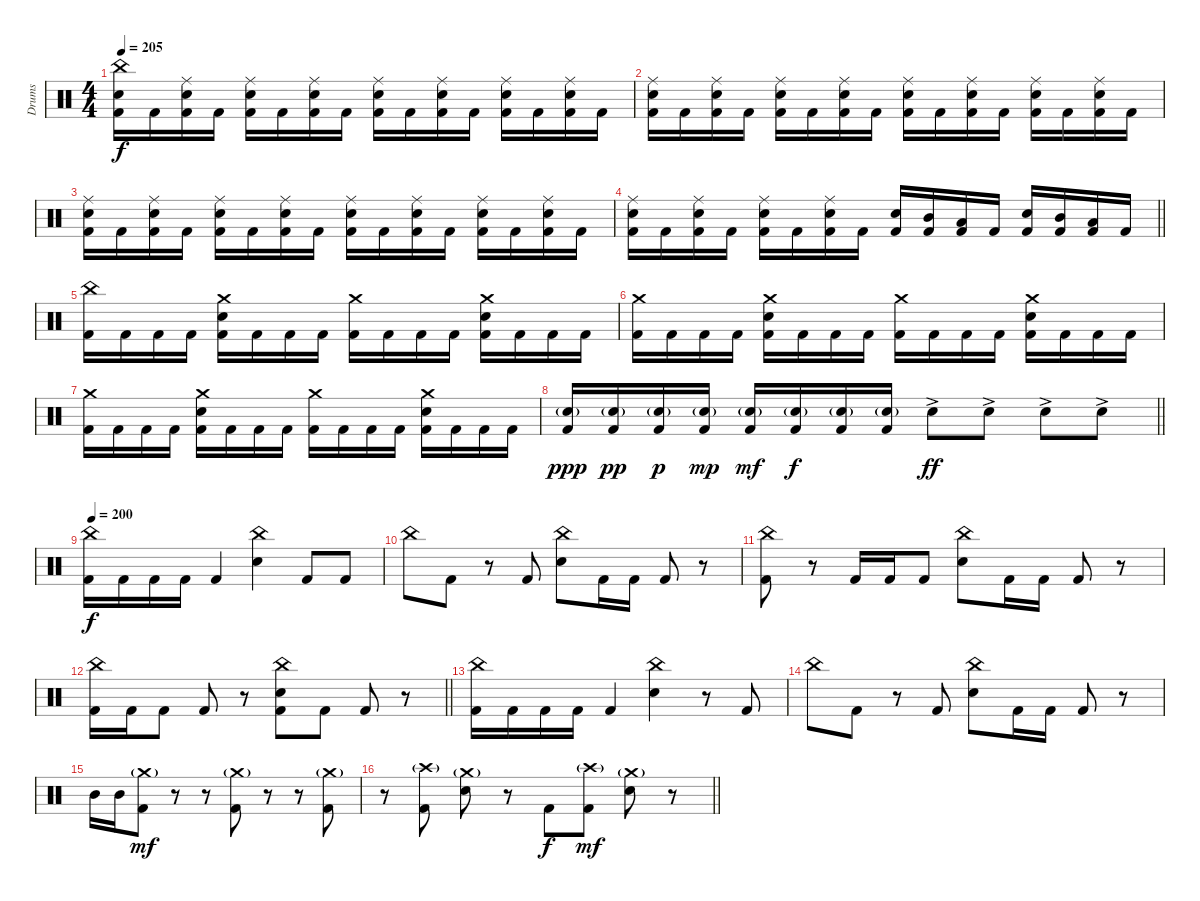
\track ("Drums" "Drums") {instrument percussion}
\staff {score}
\articulation defaults
\ts (4 4)
\tempo 205
\clef neutral
\ks c
("China (hit)" "Electric Snare (hit)" "Kick (hit) 2").16{dy f} "Kick (hit) 2".16 ("Ride (middle)" "Electric Snare (hit)" "Kick (hit) 2").16 "Kick (hit) 2".16 ("Ride (middle)" "Electric Snare (hit)" "Kick (hit) 2").16 "Kick (hit) 2".16 ("Ride (middle)" "Electric Snare (hit)" "Kick (hit) 2").16 "Kick (hit) 2".16 ("Ride (middle)" "Electric Snare (hit)" "Kick (hit) 2").16 "Kick (hit) 2".16 ("Ride (middle)" "Electric Snare (hit)" "Kick (hit) 2").16 "Kick (hit) 2".16 ("Ride (middle)" "Electric Snare (hit)" "Kick (hit) 2").16 "Kick (hit) 2".16 ("Ride (middle)" "Electric Snare (hit)" "Kick (hit) 2").16 "Kick (hit) 2".16 |
("Ride (middle)" "Electric Snare (hit)" "Kick (hit) 2").16 "Kick (hit) 2".16 ("Ride (middle)" "Electric Snare (hit)" "Kick (hit) 2").16 "Kick (hit) 2".16 ("Ride (middle)" "Electric Snare (hit)" "Kick (hit) 2").16 "Kick (hit) 2".16 ("Ride (middle)" "Electric Snare (hit)" "Kick (hit) 2").16 "Kick (hit) 2".16 ("Ride (middle)" "Electric Snare (hit)" "Kick (hit) 2").16 "Kick (hit) 2".16 ("Ride (middle)" "Electric Snare (hit)" "Kick (hit) 2").16 "Kick (hit) 2".16 ("Ride (middle)" "Electric Snare (hit)" "Kick (hit) 2").16 "Kick (hit) 2".16 ("Ride (middle)" "Electric Snare (hit)" "Kick (hit) 2").16 "Kick (hit) 2".16 |
("Ride (middle)" "Electric Snare (hit)" "Kick (hit) 2").16 "Kick (hit) 2".16 ("Ride (middle)" "Electric Snare (hit)" "Kick (hit) 2").16 "Kick (hit) 2".16 ("Ride (middle)" "Electric Snare (hit)" "Kick (hit) 2").16 "Kick (hit) 2".16 ("Ride (middle)" "Electric Snare (hit)" "Kick (hit) 2").16 "Kick (hit) 2".16 ("Ride (middle)" "Electric Snare (hit)" "Kick (hit) 2").16 "Kick (hit) 2".16 ("Ride (middle)" "Electric Snare (hit)" "Kick (hit) 2").16 "Kick (hit) 2".16 ("Ride (middle)" "Electric Snare (hit)" "Kick (hit) 2").16 "Kick (hit) 2".16 ("Ride (middle)" "Electric Snare (hit)" "Kick (hit) 2").16 "Kick (hit) 2".16 |
\barLineRight lightlight
("Ride (middle)" "Electric Snare (hit)" "Kick (hit) 2").16 "Kick (hit) 2".16 ("Ride (middle)" "Electric Snare (hit)" "Kick (hit) 2").16 "Kick (hit) 2".16 ("Ride (middle)" "Electric Snare (hit)" "Kick (hit) 2").16 "Kick (hit) 2".16 ("Ride (middle)" "Electric Snare (hit)" "Kick (hit) 2").16 "Kick (hit) 2".16 ("Electric Snare (hit)" "Kick (hit) 2").16 ("Mid Tom (hit)" "Kick (hit) 2").16 ("Low Tom (hit)" "Kick (hit) 2").16 "Kick (hit) 2".16 ("Electric Snare (hit)" "Kick (hit) 2").16 ("Mid Tom (hit)" "Kick (hit) 2").16 ("Low Tom (hit)" "Kick (hit) 2").16 "Kick (hit) 2".16 |
("China (hit)" "Kick (hit) 2").16 "Kick (hit) 2".16 "Kick (hit) 2".16 "Kick (hit) 2".16 ("Crash medium (hit)" "Electric Snare (hit)" "Kick (hit) 2").16 "Kick (hit) 2".16 "Kick (hit) 2".16 "Kick (hit) 2".16 ("Crash medium (hit)" "Kick (hit) 2").16 "Kick (hit) 2".16 "Kick (hit) 2".16 "Kick (hit) 2".16 ("Crash medium (hit)" "Electric Snare (hit)" "Kick (hit) 2").16 "Kick (hit) 2".16 "Kick (hit) 2".16 "Kick (hit) 2".16 |
("Crash medium (hit)" "Kick (hit) 2").16 "Kick (hit) 2".16 "Kick (hit) 2".16 "Kick (hit) 2".16 ("Crash medium (hit)" "Electric Snare (hit)" "Kick (hit) 2").16 "Kick (hit) 2".16 "Kick (hit) 2".16 "Kick (hit) 2".16 ("Crash medium (hit)" "Kick (hit) 2").16 "Kick (hit) 2".16 "Kick (hit) 2".16 "Kick (hit) 2".16 ("Crash medium (hit)" "Electric Snare (hit)" "Kick (hit) 2").16 "Kick (hit) 2".16 "Kick (hit) 2".16 "Kick (hit) 2".16 |
("Crash medium (hit)" "Kick (hit) 2").16 "Kick (hit) 2".16 "Kick (hit) 2".16 "Kick (hit) 2".16 ("Crash medium (hit)" "Electric Snare (hit)" "Kick (hit) 2").16 "Kick (hit) 2".16 "Kick (hit) 2".16 "Kick (hit) 2".16 ("Crash medium (hit)" "Kick (hit) 2").16 "Kick (hit) 2".16 "Kick (hit) 2".16 "Kick (hit) 2".16 ("Crash medium (hit)" "Electric Snare (hit)" "Kick (hit) 2").16 "Kick (hit) 2".16 "Kick (hit) 2".16 "Kick (hit) 2".16 |
\barLineRight lightlight
("Electric Snare (hit)"{g} "Kick (hit) 2").16{dy ppp} ("Electric Snare (hit)"{g} "Kick (hit) 2").16{dy pp} ("Electric Snare (hit)"{g} "Kick (hit) 2").16{dy p} ("Electric Snare (hit)"{g} "Kick (hit) 2").16{dy mp} ("Electric Snare (hit)"{g} "Kick (hit) 2").16{dy mf} ("Electric Snare (hit)"{g} "Kick (hit) 2").16{dy f} ("Electric Snare (hit)"{g} "Kick (hit) 2").16 ("Electric Snare (hit)"{g} "Kick (hit) 2").16 "Electric Snare (hit)"{ac}.8{dy ff} "Electric Snare (hit)"{ac}.8 "Electric Snare (hit)"{ac}.8 "Electric Snare (hit)"{ac}.8 |
\tempo 200
("China (hit)" "Kick (hit) 2").16{dy f} "Kick (hit) 2".16 "Kick (hit) 2".16 "Kick (hit) 2".16 "Kick (hit) 2".4 ("China (hit)" "Electric Snare (hit)").4 "Kick (hit) 2".8 "Kick (hit) 2".8 |
"China (hit)".8 "Kick (hit) 2".8 r.8 "Kick (hit) 2".8 ("China (hit)" "Electric Snare (hit)").8 "Kick (hit) 2".16 "Kick (hit) 2".16 "Kick (hit) 2".8 r.8 |
("China (hit)" "Kick (hit) 2").8 r.8 "Kick (hit) 2".16 "Kick (hit) 2".16 "Kick (hit) 2".8 ("China (hit)" "Electric Snare (hit)").8 "Kick (hit) 2".16 "Kick (hit) 2".16 "Kick (hit) 2".8 r.8 |
\barLineRight lightlight
("China (hit)" "Kick (hit) 2").16 "Kick (hit) 2".16 "Kick (hit) 2".8 "Kick (hit) 2".8 r.8 ("China (hit)" "Electric Snare (hit)" "Kick (hit) 2").8 "Kick (hit) 2".8 "Kick (hit) 2".8 r.8 |
("China (hit)" "Kick (hit) 2").16 "Kick (hit) 2".16 "Kick (hit) 2".16 "Kick (hit) 2".16 "Kick (hit) 2".4 ("China (hit)" "Electric Snare (hit)").4 r.8 "Kick (hit) 2".8 |
"China (hit)".8 "Kick (hit) 2".8 r.8 "Kick (hit) 2".8 ("China (hit)" "Electric Snare (hit)").8 "Kick (hit) 2".16 "Kick (hit) 2".16 "Kick (hit) 2".8 r.8 |
"Mid Tom (hit)".16 "Mid Tom (hit)".16 ("Crash medium (hit)"{g} "Kick (hit) 2").8{dy mf} r.8 r.8 ("Crash medium (hit)"{g} "Kick (hit) 2").8 r.8 r.8 ("Crash medium (hit)"{g} "Kick (hit) 2").8 |
\barLineRight lightlight
r.8 ("Crash high (hit)"{g} "Kick (hit) 2").8 ("Crash medium (hit)"{g} "Electric Snare (hit)").8 r.8 "Kick (hit) 2".8{dy f} ("Crash high (hit)"{g} "Kick (hit) 2").8{dy mf} ("Crash medium (hit)"{g} "Electric Snare (hit)").8 r.8
